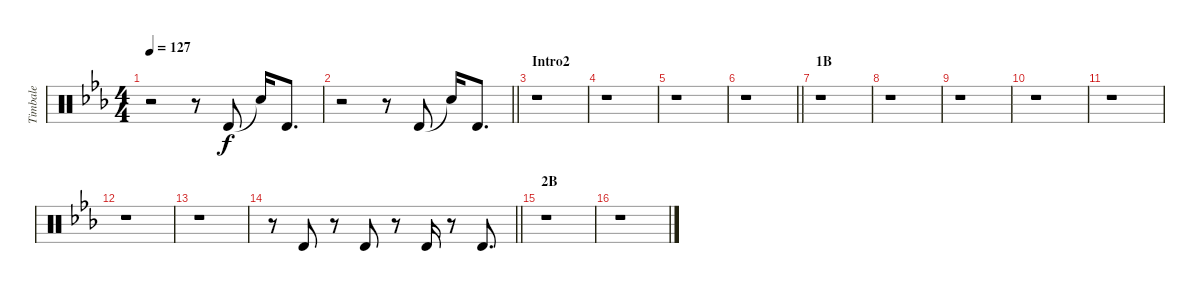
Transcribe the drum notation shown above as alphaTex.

\track ("Timbale" "Timbale") {instrument percussion}
\staff {score}
\articulation defaults
\ts (4 4)
\tempo 127
\clef neutral
\ks eb
r.2{dy f} r.8 "Timbale high (hit)".8 "Snare (hit)"{t}.16 "Timbale high (hit)".8{d} |
\barLineRight lightlight
r.2 r.8 "Timbale high (hit)".8 "Snare (hit)"{t}.16 "Timbale high (hit)".8{d} |
\section ("" "Intro2")
r.1 |
r.1 |
r.1 |
\barLineRight lightlight
r.1 |
\section ("" "1B")
r.1 |
r.1 |
r.1 |
r.1 |
r.1 |
r.1 |
r.1 |
\barLineRight lightlight
r.8 "Timbale high (hit)".8 r.8 "Timbale high (hit)".8 r.8 "Timbale high (hit)".16 r.8 "Timbale high (hit)".8{d} |
\section ("" "2B")
r.1 |
r.1
